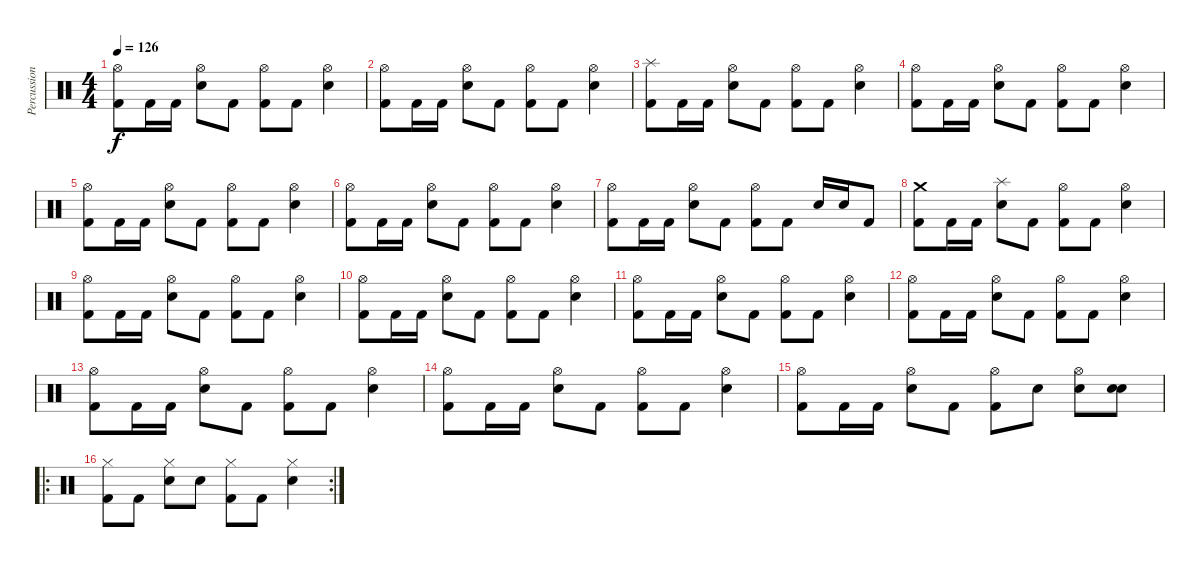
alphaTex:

\track ("Percussion" "Percussion") {instrument percussion}
\staff {score}
\articulation defaults
\ts (4 4)
\tempo 126
\clef neutral
\ks c
("Hi-Hat (open)" "Kick (hit) 2").8{dy f} "Kick (hit) 2".16 "Kick (hit) 2".16 ("Hi-Hat (open)" "Electric Snare (hit)").8 "Kick (hit) 2".8 ("Hi-Hat (open)" "Kick (hit) 2").8 "Kick (hit) 2".8 ("Hi-Hat (open)" "Electric Snare (hit)").4 |
("Hi-Hat (open)" "Kick (hit) 2").8 "Kick (hit) 2".16 "Kick (hit) 2".16 ("Hi-Hat (open)" "Electric Snare (hit)").8 "Kick (hit) 2".8 ("Hi-Hat (open)" "Kick (hit) 2").8 "Kick (hit) 2".8 ("Hi-Hat (open)" "Electric Snare (hit)").4 |
("Splash (hit)" "Kick (hit) 2").8 "Kick (hit) 2".16 "Kick (hit) 2".16 ("Hi-Hat (open)" "Electric Snare (hit)").8 "Kick (hit) 2".8 ("Hi-Hat (open)" "Kick (hit) 2").8 "Kick (hit) 2".8 ("Hi-Hat (open)" "Electric Snare (hit)").4 |
("Hi-Hat (open)" "Kick (hit) 2").8 "Kick (hit) 2".16 "Kick (hit) 2".16 ("Hi-Hat (open)" "Electric Snare (hit)").8 "Kick (hit) 2".8 ("Hi-Hat (open)" "Kick (hit) 2").8 "Kick (hit) 2".8 ("Hi-Hat (open)" "Electric Snare (hit)").4 |
("Hi-Hat (open)" "Kick (hit) 2").8 "Kick (hit) 2".16 "Kick (hit) 2".16 ("Hi-Hat (open)" "Electric Snare (hit)").8 "Kick (hit) 2".8 ("Hi-Hat (open)" "Kick (hit) 2").8 "Kick (hit) 2".8 ("Hi-Hat (open)" "Electric Snare (hit)").4 |
("Hi-Hat (open)" "Kick (hit) 2").8 "Kick (hit) 2".16 "Kick (hit) 2".16 ("Hi-Hat (open)" "Electric Snare (hit)").8 "Kick (hit) 2".8 ("Hi-Hat (open)" "Kick (hit) 2").8 "Kick (hit) 2".8 ("Hi-Hat (open)" "Electric Snare (hit)").4 |
("Hi-Hat (open)" "Kick (hit) 2").8 "Kick (hit) 2".16 "Kick (hit) 2".16 ("Hi-Hat (open)" "Electric Snare (hit)").8 "Kick (hit) 2".8 ("Hi-Hat (open)" "Kick (hit) 2").8 "Kick (hit) 2".8 "Electric Snare (hit)".16 "Electric Snare (hit)".16 "Kick (hit) 2".8 |
("Crash medium (hit)" "Kick (hit) 2").8 "Kick (hit) 2".16 "Kick (hit) 2".16 ("Splash (hit)" "Electric Snare (hit)").8 "Kick (hit) 2".8 ("Hi-Hat (open)" "Kick (hit) 2").8 "Kick (hit) 2".8 ("Hi-Hat (open)" "Electric Snare (hit)").4 |
("Hi-Hat (open)" "Kick (hit) 2").8 "Kick (hit) 2".16 "Kick (hit) 2".16 ("Hi-Hat (open)" "Electric Snare (hit)").8 "Kick (hit) 2".8 ("Hi-Hat (open)" "Kick (hit) 2").8 "Kick (hit) 2".8 ("Hi-Hat (open)" "Electric Snare (hit)").4 |
("Hi-Hat (open)" "Kick (hit) 2").8 "Kick (hit) 2".16 "Kick (hit) 2".16 ("Hi-Hat (open)" "Electric Snare (hit)").8 "Kick (hit) 2".8 ("Hi-Hat (open)" "Kick (hit) 2").8 "Kick (hit) 2".8 ("Hi-Hat (open)" "Electric Snare (hit)").4 |
("Hi-Hat (open)" "Kick (hit) 2").8 "Kick (hit) 2".16 "Kick (hit) 2".16 ("Hi-Hat (open)" "Electric Snare (hit)").8 "Kick (hit) 2".8 ("Hi-Hat (open)" "Kick (hit) 2").8 "Kick (hit) 2".8 ("Hi-Hat (open)" "Electric Snare (hit)").4 |
("Hi-Hat (open)" "Kick (hit) 2").8 "Kick (hit) 2".16 "Kick (hit) 2".16 ("Hi-Hat (open)" "Electric Snare (hit)").8 "Kick (hit) 2".8 ("Hi-Hat (open)" "Kick (hit) 2").8 "Kick (hit) 2".8 ("Hi-Hat (open)" "Electric Snare (hit)").4 |
("Hi-Hat (open)" "Kick (hit) 2").8 "Kick (hit) 2".16 "Kick (hit) 2".16 ("Hi-Hat (open)" "Electric Snare (hit)").8 "Kick (hit) 2".8 ("Hi-Hat (open)" "Kick (hit) 2").8 "Kick (hit) 2".8 ("Hi-Hat (open)" "Electric Snare (hit)").4 |
("Hi-Hat (open)" "Kick (hit) 2").8 "Kick (hit) 2".16 "Kick (hit) 2".16 ("Hi-Hat (open)" "Electric Snare (hit)").8 "Kick (hit) 2".8 ("Hi-Hat (open)" "Kick (hit) 2").8 "Kick (hit) 2".8 ("Hi-Hat (open)" "Electric Snare (hit)").4 |
("Hi-Hat (open)" "Kick (hit) 2").8 "Kick (hit) 2".16 "Kick (hit) 2".16 ("Hi-Hat (open)" "Electric Snare (hit)").8 "Kick (hit) 2".8 ("Hi-Hat (open)" "Kick (hit) 2").8 "Electric Snare (hit)".8 ("Hi-Hat (open)" "Electric Snare (hit)").8 ("Electric Snare (hit)" "Electric Snare (hit)").8 |
\ro
\rc 2
("Hi-Hat (closed)" "Kick (hit) 2").8 "Kick (hit) 2".8 ("Hi-Hat (closed)" "Electric Snare (hit)").8 "Electric Snare (hit)".8 ("Hi-Hat (closed)" "Kick (hit) 2").8 "Kick (hit) 2".8 ("Hi-Hat (closed)" "Electric Snare (hit)").4
